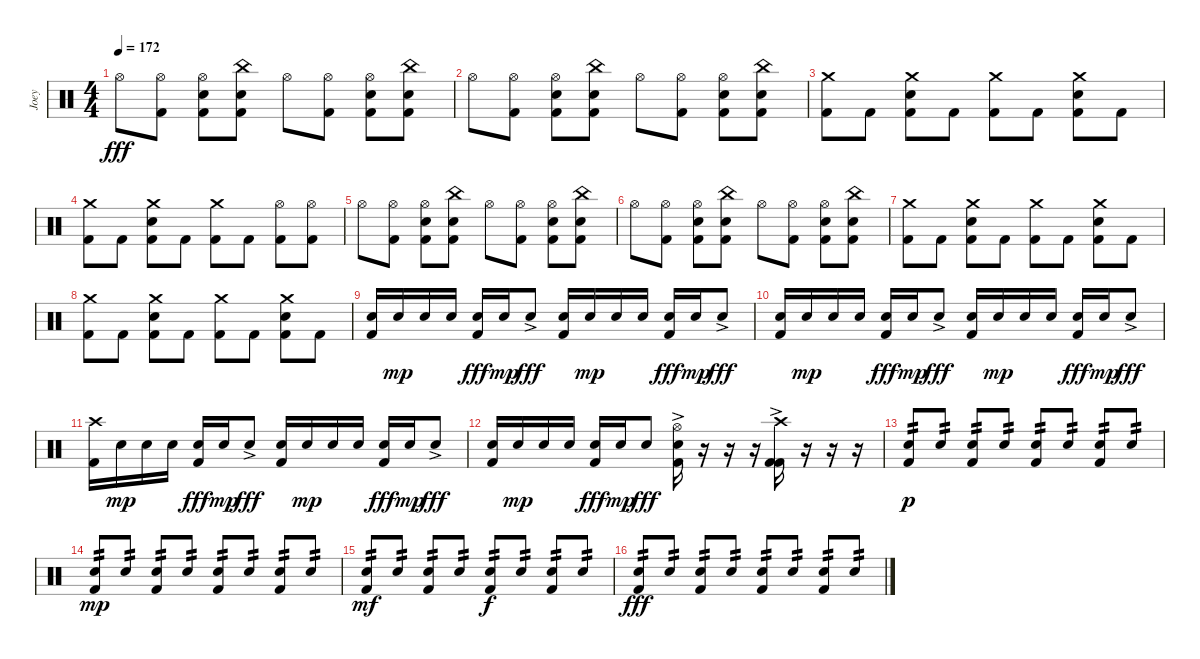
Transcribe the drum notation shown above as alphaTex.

\track ("Joey" "Joey") {instrument percussion}
\staff {score}
\articulation defaults
\ts (4 4)
\tempo 172
\clef neutral
\ks c "Hi-Hat (open)".8{dy fff}
("Hi-Hat (open)" "Kick (hit) 2").8 ("Hi-Hat (open)" "Snare (hit) 2" "Kick (hit) 2").8 ("China (hit)" "Snare (hit) 2" "Kick (hit) 2").8 "Hi-Hat (open)".8 ("Hi-Hat (open)" "Kick (hit) 2").8 ("Hi-Hat (open)" "Snare (hit) 2" "Kick (hit) 2").8 ("China (hit)" "Snare (hit) 2" "Kick (hit) 2").8 |
"Hi-Hat (open)".8 ("Hi-Hat (open)" "Kick (hit) 2").8 ("Hi-Hat (open)" "Snare (hit) 2" "Kick (hit) 2").8 ("China (hit)" "Snare (hit) 2" "Kick (hit) 2").8 "Hi-Hat (open)".8 ("Hi-Hat (open)" "Kick (hit) 2").8 ("Hi-Hat (open)" "Snare (hit) 2" "Kick (hit) 2").8 ("China (hit)" "Snare (hit) 2" "Kick (hit) 2").8 |
("Crash medium (hit)" "Kick (hit) 2").8 "Kick (hit) 2".8 ("Crash medium (hit)" "Snare (hit) 2" "Kick (hit) 2").8 "Kick (hit) 2".8 ("Crash medium (hit)" "Kick (hit) 2").8 "Kick (hit) 2".8 ("Crash medium (hit)" "Snare (hit) 2" "Kick (hit) 2").8 "Kick (hit) 2".8 |
("Crash medium (hit)" "Kick (hit) 2").8 "Kick (hit) 2".8 ("Crash medium (hit)" "Snare (hit) 2" "Kick (hit) 2").8 "Kick (hit) 2".8 ("Crash medium (hit)" "Kick (hit) 2").8 "Kick (hit) 2".8 ("Hi-Hat (open)" "Kick (hit) 2").8 ("Hi-Hat (open)" "Kick (hit) 2").8 |
"Hi-Hat (open)".8 ("Hi-Hat (open)" "Kick (hit) 2").8 ("Hi-Hat (open)" "Snare (hit) 2" "Kick (hit) 2").8 ("China (hit)" "Snare (hit) 2" "Kick (hit) 2").8 "Hi-Hat (open)".8 ("Hi-Hat (open)" "Kick (hit) 2").8 ("Hi-Hat (open)" "Snare (hit) 2" "Kick (hit) 2").8 ("China (hit)" "Snare (hit) 2" "Kick (hit) 2").8 |
"Hi-Hat (open)".8 ("Hi-Hat (open)" "Kick (hit) 2").8 ("Hi-Hat (open)" "Snare (hit) 2" "Kick (hit) 2").8 ("China (hit)" "Snare (hit) 2" "Kick (hit) 2").8 "Hi-Hat (open)".8 ("Hi-Hat (open)" "Kick (hit) 2").8 ("Hi-Hat (open)" "Snare (hit) 2" "Kick (hit) 2").8 ("China (hit)" "Snare (hit) 2" "Kick (hit) 2").8 |
("Crash medium (hit)" "Kick (hit) 2").8 "Kick (hit) 2".8 ("Crash medium (hit)" "Snare (hit) 2" "Kick (hit) 2").8 "Kick (hit) 2".8 ("Crash medium (hit)" "Kick (hit) 2").8 "Kick (hit) 2".8 ("Crash medium (hit)" "Snare (hit) 2" "Kick (hit) 2").8 "Kick (hit) 2".8 |
("Crash medium (hit)" "Kick (hit) 2").8 "Kick (hit) 2".8 ("Crash medium (hit)" "Snare (hit) 2" "Kick (hit) 2").8 "Kick (hit) 2".8 ("Crash medium (hit)" "Kick (hit) 2").8 "Kick (hit) 2".8 ("Crash medium (hit)" "Snare (hit) 2" "Kick (hit) 2").8 "Kick (hit) 2".8 |
("Snare (hit) 2" "Kick (hit) 2").16 "Snare (hit) 2".16{dy mp} "Snare (hit) 2".16 "Snare (hit) 2".16 ("Snare (hit) 2" "Kick (hit) 2").16{dy fff} "Snare (hit) 2".16{dy mp} "Snare (hit) 2"{ac}.8{dy fff} ("Snare (hit) 2" "Kick (hit) 2").16 "Snare (hit) 2".16{dy mp} "Snare (hit) 2".16 "Snare (hit) 2".16 ("Snare (hit) 2" "Kick (hit) 2").16{dy fff} "Snare (hit) 2".16{dy mp} "Snare (hit) 2"{ac}.8{dy fff} |
("Snare (hit) 2" "Kick (hit) 2").16 "Snare (hit) 2".16{dy mp} "Snare (hit) 2".16 "Snare (hit) 2".16 ("Snare (hit) 2" "Kick (hit) 2").16{dy fff} "Snare (hit) 2".16{dy mp} "Snare (hit) 2"{ac}.8{dy fff} ("Snare (hit) 2" "Kick (hit) 2").16 "Snare (hit) 2".16{dy mp} "Snare (hit) 2".16 "Snare (hit) 2".16 ("Snare (hit) 2" "Kick (hit) 2").16{dy fff} "Snare (hit) 2".16{dy mp} "Snare (hit) 2"{ac}.8{dy fff} |
("Crash high (hit)" "Kick (hit) 2").16 "Snare (hit) 2".16{dy mp} "Snare (hit) 2".16 "Snare (hit) 2".16 ("Snare (hit) 2" "Kick (hit) 2").16{dy fff} "Snare (hit) 2".16{dy mp} "Snare (hit) 2"{ac}.8{dy fff} ("Snare (hit) 2" "Kick (hit) 2").16 "Snare (hit) 2".16{dy mp} "Snare (hit) 2".16 "Snare (hit) 2".16 ("Snare (hit) 2" "Kick (hit) 2").16{dy fff} "Snare (hit) 2".16{dy mp} "Snare (hit) 2"{ac}.8{dy fff} |
("Snare (hit) 2" "Kick (hit) 2").16 "Snare (hit) 2".16{dy mp} "Snare (hit) 2".16 "Snare (hit) 2".16 ("Snare (hit) 2" "Kick (hit) 2").16{dy fff} "Snare (hit) 2".16{dy mp} "Snare (hit) 2".8{dy fff} ("Hi-Hat (open)"{ac} "Snare (hit) 2"{ac} "Kick (hit) 2"{ac}).16 r.16 r.16 r.16 ("Crash high (hit)"{ac} "Kick (hit) 2" "Kick (hit) 2"{ac}).16 r.16 r.16 r.16 |
("Snare (hit) 2" "Kick (hit) 2").8{tp 2 dy p} "Snare (hit) 2".8{tp 2} ("Snare (hit) 2" "Kick (hit) 2").8{tp 2} "Snare (hit) 2".8{tp 2} ("Snare (hit) 2" "Kick (hit) 2").8{tp 2} "Snare (hit) 2".8{tp 2} ("Snare (hit) 2" "Kick (hit) 2").8{tp 2} "Snare (hit) 2".8{tp 2} |
("Snare (hit) 2" "Kick (hit) 2").8{tp 2 dy mp} "Snare (hit) 2".8{tp 2} ("Snare (hit) 2" "Kick (hit) 2").8{tp 2} "Snare (hit) 2".8{tp 2} ("Snare (hit) 2" "Kick (hit) 2").8{tp 2} "Snare (hit) 2".8{tp 2} ("Snare (hit) 2" "Kick (hit) 2").8{tp 2} "Snare (hit) 2".8{tp 2} |
("Snare (hit) 2" "Kick (hit) 2").8{tp 2 dy mf} "Snare (hit) 2".8{tp 2} ("Snare (hit) 2" "Kick (hit) 2").8{tp 2} "Snare (hit) 2".8{tp 2} ("Snare (hit) 2" "Kick (hit) 2").8{tp 2 dy f} "Snare (hit) 2".8{tp 2} ("Snare (hit) 2" "Kick (hit) 2").8{tp 2} "Snare (hit) 2".8{tp 2} |
("Snare (hit) 2" "Kick (hit) 2").8{tp 2 dy fff} "Snare (hit) 2".8{tp 2} ("Snare (hit) 2" "Kick (hit) 2").8{tp 2} "Snare (hit) 2".8{tp 2} ("Snare (hit) 2" "Kick (hit) 2").8{tp 2} "Snare (hit) 2".8{tp 2} ("Snare (hit) 2" "Kick (hit) 2").8{tp 2} "Snare (hit) 2".8{tp 2}
